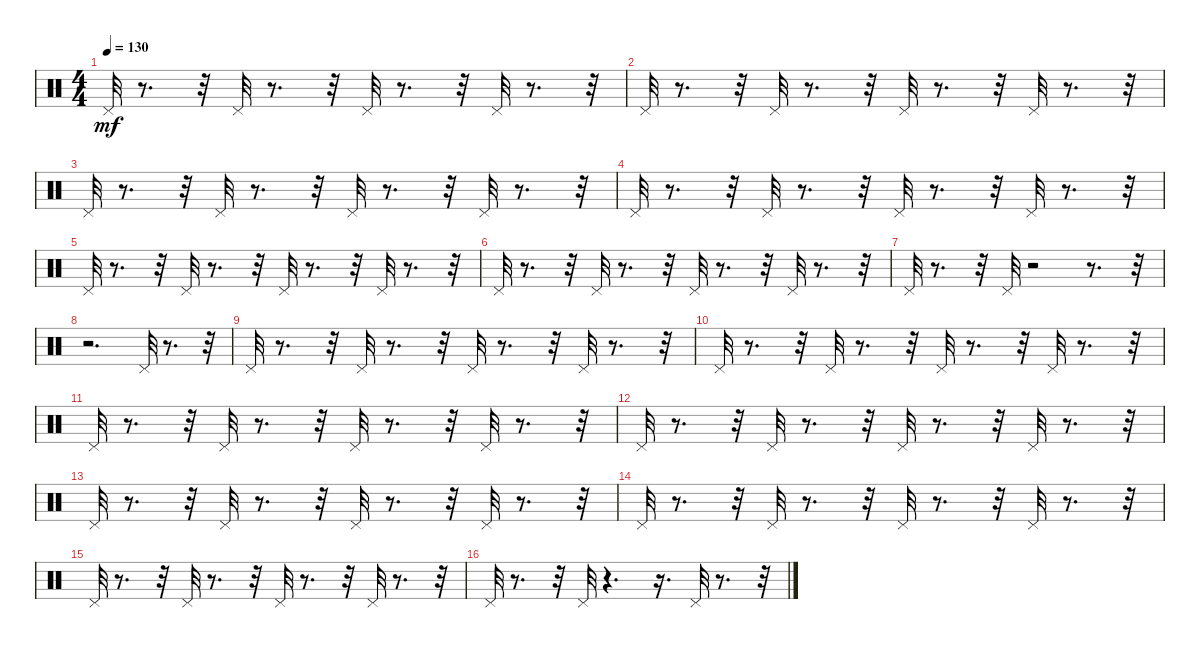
\track "" {instrument percussion}
\staff {score}
\articulation defaults
\ts (4 4)
\tempo 130
\clef neutral
\ks c "Pedal Hi-Hat (hit)".32{dy mf}
r.8{d} r.32 "Pedal Hi-Hat (hit)".32 r.8{d} r.32 "Pedal Hi-Hat (hit)".32 r.8{d} r.32 "Pedal Hi-Hat (hit)".32 r.8{d} r.32 |
"Pedal Hi-Hat (hit)".32 r.8{d} r.32 "Pedal Hi-Hat (hit)".32 r.8{d} r.32 "Pedal Hi-Hat (hit)".32 r.8{d} r.32 "Pedal Hi-Hat (hit)".32 r.8{d} r.32 |
"Pedal Hi-Hat (hit)".32 r.8{d} r.32 "Pedal Hi-Hat (hit)".32 r.8{d} r.32 "Pedal Hi-Hat (hit)".32 r.8{d} r.32 "Pedal Hi-Hat (hit)".32 r.8{d} r.32 |
"Pedal Hi-Hat (hit)".32 r.8{d} r.32 "Pedal Hi-Hat (hit)".32 r.8{d} r.32 "Pedal Hi-Hat (hit)".32 r.8{d} r.32 "Pedal Hi-Hat (hit)".32 r.8{d} r.32 |
"Pedal Hi-Hat (hit)".32 r.8{d} r.32 "Pedal Hi-Hat (hit)".32 r.8{d} r.32 "Pedal Hi-Hat (hit)".32 r.8{d} r.32 "Pedal Hi-Hat (hit)".32 r.8{d} r.32 |
"Pedal Hi-Hat (hit)".32 r.8{d} r.32 "Pedal Hi-Hat (hit)".32 r.8{d} r.32 "Pedal Hi-Hat (hit)".32 r.8{d} r.32 "Pedal Hi-Hat (hit)".32 r.8{d} r.32 |
"Pedal Hi-Hat (hit)".32 r.8{d} r.32 "Pedal Hi-Hat (hit)".32 r.2 r.8{d} r.32 |
r.2{d} "Pedal Hi-Hat (hit)".32 r.8{d} r.32 |
"Pedal Hi-Hat (hit)".32 r.8{d} r.32 "Pedal Hi-Hat (hit)".32 r.8{d} r.32 "Pedal Hi-Hat (hit)".32 r.8{d} r.32 "Pedal Hi-Hat (hit)".32 r.8{d} r.32 |
"Pedal Hi-Hat (hit)".32 r.8{d} r.32 "Pedal Hi-Hat (hit)".32 r.8{d} r.32 "Pedal Hi-Hat (hit)".32 r.8{d} r.32 "Pedal Hi-Hat (hit)".32 r.8{d} r.32 |
"Pedal Hi-Hat (hit)".32 r.8{d} r.32 "Pedal Hi-Hat (hit)".32 r.8{d} r.32 "Pedal Hi-Hat (hit)".32 r.8{d} r.32 "Pedal Hi-Hat (hit)".32 r.8{d} r.32 |
"Pedal Hi-Hat (hit)".32 r.8{d} r.32 "Pedal Hi-Hat (hit)".32 r.8{d} r.32 "Pedal Hi-Hat (hit)".32 r.8{d} r.32 "Pedal Hi-Hat (hit)".32 r.8{d} r.32 |
"Pedal Hi-Hat (hit)".32 r.8{d} r.32 "Pedal Hi-Hat (hit)".32 r.8{d} r.32 "Pedal Hi-Hat (hit)".32 r.8{d} r.32 "Pedal Hi-Hat (hit)".32 r.8{d} r.32 |
"Pedal Hi-Hat (hit)".32 r.8{d} r.32 "Pedal Hi-Hat (hit)".32 r.8{d} r.32 "Pedal Hi-Hat (hit)".32 r.8{d} r.32 "Pedal Hi-Hat (hit)".32 r.8{d} r.32 |
"Pedal Hi-Hat (hit)".32 r.8{d} r.32 "Pedal Hi-Hat (hit)".32 r.8{d} r.32 "Pedal Hi-Hat (hit)".32 r.8{d} r.32 "Pedal Hi-Hat (hit)".32 r.8{d} r.32 |
"Pedal Hi-Hat (hit)".32 r.8{d} r.32 "Pedal Hi-Hat (hit)".32 r.4{d} r.16{d} "Pedal Hi-Hat (hit)".32 r.8{d} r.32
